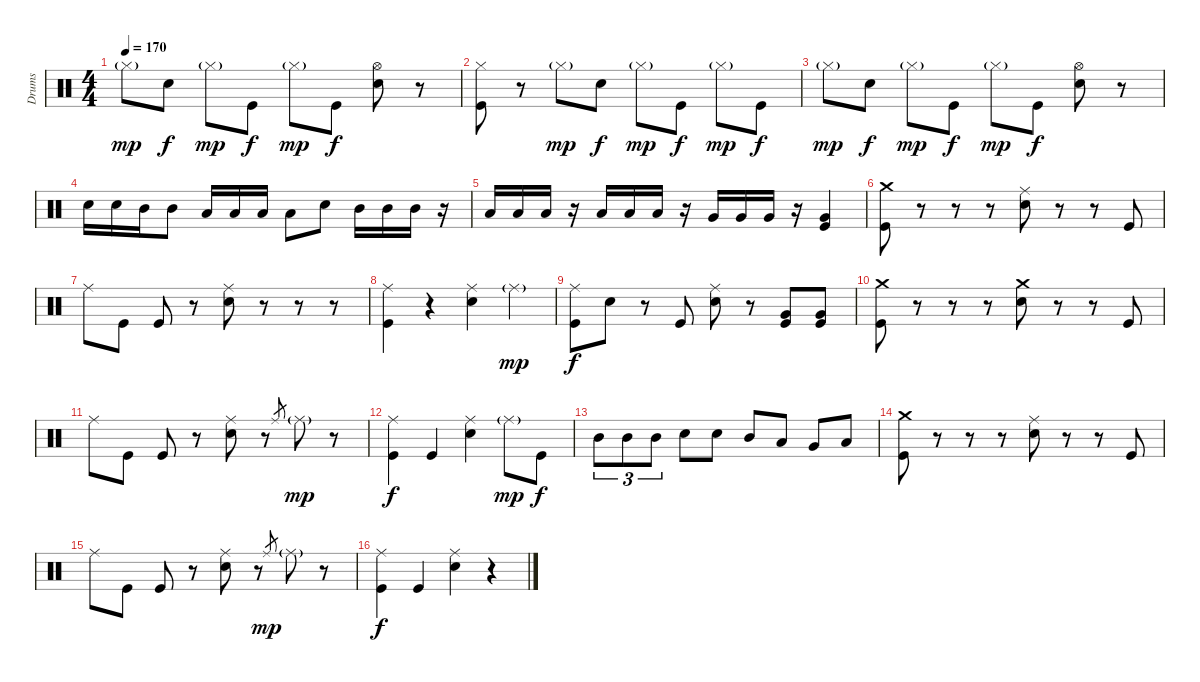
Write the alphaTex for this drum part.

\track ("Drums" "Drums") {instrument percussion}
\staff {score}
\articulation defaults
\ts (4 4)
\tempo 170
\clef neutral
\ks c "Hi-Hat (closed)"{g}.8{dy mp} "Electric Snare (hit)".8{dy f} "Hi-Hat (closed)"{g}.8{dy mp} "Kick (hit)".8{dy f} "Hi-Hat (closed)"{g}.8{dy mp} "Kick (hit)".8{dy f}
("Hi-Hat (open)" "Electric Snare (hit)").8 r.8 |
("Hi-Hat (closed)" "Kick (hit)").8 r.8 "Hi-Hat (closed)"{g}.8{dy mp} "Electric Snare (hit)".8{dy f} "Hi-Hat (closed)"{g}.8{dy mp} "Kick (hit)".8{dy f} "Hi-Hat (closed)"{g}.8{dy mp} "Kick (hit)".8{dy f} |
"Hi-Hat (closed)"{g}.8{dy mp} "Electric Snare (hit)".8{dy f} "Hi-Hat (closed)"{g}.8{dy mp} "Kick (hit)".8{dy f} "Hi-Hat (closed)"{g}.8{dy mp} "Kick (hit)".8{dy f} ("Hi-Hat (open)" "Electric Snare (hit)").8 r.8 |
"Electric Snare (hit)".16 "Electric Snare (hit)".16 "Mid Tom (hit)".16 "Mid Tom (hit)".8 "Low Tom (hit)".16 "Low Tom (hit)".16 "Low Tom (hit)".16 "Low Tom (hit)".8 "Electric Snare (hit)".8 "Mid Tom (hit)".16 "Mid Tom (hit)".16 "Mid Tom (hit)".16 r.16 |
"Low Tom (hit)".16 "Low Tom (hit)".16 "Low Tom (hit)".16 r.16 "Low Tom (hit)".16 "Low Tom (hit)".16 "Low Tom (hit)".16 r.16 "Very Low Tom (hit)".16 "Very Low Tom (hit)".16 "Very Low Tom (hit)".16 r.16 ("Very Low Tom (hit)" "Kick (hit)").4 |
("Crash medium (hit)" "Kick (hit)").8 r.8 r.8 r.8 ("Ride (middle)" "Electric Snare (hit)").8 r.8 r.8 "Kick (hit)".8 |
"Ride (middle)".8 "Kick (hit)".8 "Kick (hit)".8 r.8 ("Ride (middle)" "Electric Snare (hit)").8 r.8 r.8 r.8 |
("Ride (middle)" "Kick (hit)").4 r.4 ("Ride (middle)" "Electric Snare (hit)").4 "Ride (middle)"{g}.4{dy mp} |
("Ride (middle)" "Kick (hit)").8{dy f} "Electric Snare (hit)".8 r.8 "Kick (hit)".8 ("Ride (middle)" "Electric Snare (hit)").8 r.8 ("Very Low Tom (hit)" "Kick (hit)").8 ("Very Low Tom (hit)" "Kick (hit)").8 |
("Crash medium (hit)" "Kick (hit)").8 r.8 r.8 r.8 ("Crash medium (hit)" "Electric Snare (hit)").8 r.8 r.8 "Kick (hit)".8 |
"Ride (middle)".8 "Kick (hit)".8 "Kick (hit)".8 r.8 ("Ride (middle)" "Electric Snare (hit)").8 r.8 "Ride (middle)".8{gr} "Ride (middle)"{g}.8{dy mp} r.8 |
("Ride (middle)" "Kick (hit)").4{dy f} "Kick (hit)".4 ("Ride (middle)" "Electric Snare (hit)").4 "Ride (middle)"{g}.8{dy mp} "Kick (hit)".8{dy f} |
"Mid Tom (hit)".8{tu (3 2)} "Mid Tom (hit)".8{tu (3 2)} "Mid Tom (hit)".8{tu (3 2)} "Electric Snare (hit)".8 "Electric Snare (hit)".8 "Mid Tom (hit)".8 "Low Tom (hit)".8 "Very Low Tom (hit)".8 "Low Floor Tom (hit)".8 |
("Crash medium (hit)" "Kick (hit)").8 r.8 r.8 r.8 ("Ride (middle)" "Electric Snare (hit)").8 r.8 r.8 "Kick (hit)".8 |
"Ride (middle)".8 "Kick (hit)".8 "Kick (hit)".8 r.8 ("Ride (middle)" "Electric Snare (hit)").8 r.8 "Ride (middle)".8{gr dy mp} "Ride (middle)"{g}.8 r.8 |
("Ride (middle)" "Kick (hit)").4{dy f} "Kick (hit)".4 ("Ride (middle)" "Electric Snare (hit)").4 r.4
